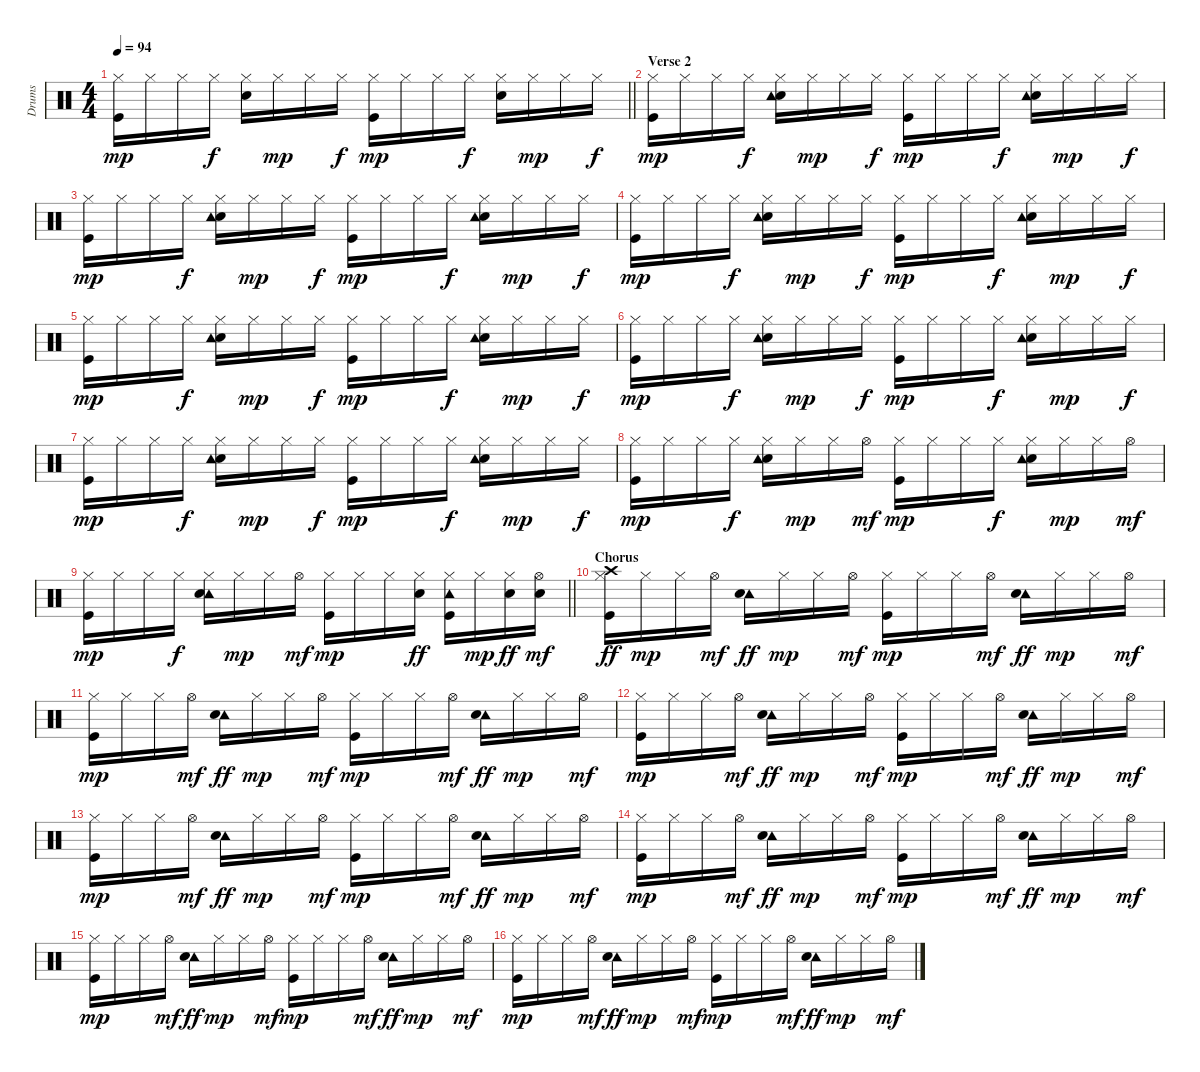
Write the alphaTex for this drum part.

\track ("Drums" "Drums") {instrument percussion}
\staff {score}
\articulation defaults
\ts (4 4)
\tempo 94
\clef neutral
\barLineRight lightlight
\ks c
("Hi-Hat (closed)" "Kick (hit)").16{dy mp} "Hi-Hat (closed)".16 "Hi-Hat (closed)".16 "Hi-Hat (closed)".16{dy f} ("Snare (hit) 2" "Hi-Hat (closed)").16 "Hi-Hat (closed)".16{dy mp} "Hi-Hat (closed)".16 "Hi-Hat (closed)".16{dy f} ("Hi-Hat (closed)" "Kick (hit)").16{dy mp} "Hi-Hat (closed)".16 "Hi-Hat (closed)".16 "Hi-Hat (closed)".16{dy f} ("Snare (hit) 2" "Hi-Hat (closed)").16 "Hi-Hat (closed)".16{dy mp} "Hi-Hat (closed)".16 "Hi-Hat (closed)".16{dy f} |
\section ("" "Verse 2")
("Hi-Hat (closed)" "Kick (hit)").16{dy mp} "Hi-Hat (closed)".16 "Hi-Hat (closed)".16 "Hi-Hat (closed)".16{dy f} ("Snare (hit) 2" "Tambourine (hit)" "Hi-Hat (closed)").16 "Hi-Hat (closed)".16{dy mp} "Hi-Hat (closed)".16 "Hi-Hat (closed)".16{dy f} ("Hi-Hat (closed)" "Kick (hit)").16{dy mp} "Hi-Hat (closed)".16 "Hi-Hat (closed)".16 "Hi-Hat (closed)".16{dy f} ("Snare (hit) 2" "Tambourine (hit)" "Hi-Hat (closed)").16 "Hi-Hat (closed)".16{dy mp} "Hi-Hat (closed)".16 "Hi-Hat (closed)".16{dy f} |
("Hi-Hat (closed)" "Kick (hit)").16{dy mp} "Hi-Hat (closed)".16 "Hi-Hat (closed)".16 "Hi-Hat (closed)".16{dy f} ("Snare (hit) 2" "Tambourine (hit)" "Hi-Hat (closed)").16 "Hi-Hat (closed)".16{dy mp} "Hi-Hat (closed)".16 "Hi-Hat (closed)".16{dy f} ("Hi-Hat (closed)" "Kick (hit)").16{dy mp} "Hi-Hat (closed)".16 "Hi-Hat (closed)".16 "Hi-Hat (closed)".16{dy f} ("Snare (hit) 2" "Tambourine (hit)" "Hi-Hat (closed)").16 "Hi-Hat (closed)".16{dy mp} "Hi-Hat (closed)".16 "Hi-Hat (closed)".16{dy f} |
("Hi-Hat (closed)" "Kick (hit)").16{dy mp} "Hi-Hat (closed)".16 "Hi-Hat (closed)".16 "Hi-Hat (closed)".16{dy f} ("Snare (hit) 2" "Tambourine (hit)" "Hi-Hat (closed)").16 "Hi-Hat (closed)".16{dy mp} "Hi-Hat (closed)".16 "Hi-Hat (closed)".16{dy f} ("Hi-Hat (closed)" "Kick (hit)").16{dy mp} "Hi-Hat (closed)".16 "Hi-Hat (closed)".16 "Hi-Hat (closed)".16{dy f} ("Snare (hit) 2" "Tambourine (hit)" "Hi-Hat (closed)").16 "Hi-Hat (closed)".16{dy mp} "Hi-Hat (closed)".16 "Hi-Hat (closed)".16{dy f} |
("Hi-Hat (closed)" "Kick (hit)").16{dy mp} "Hi-Hat (closed)".16 "Hi-Hat (closed)".16 "Hi-Hat (closed)".16{dy f} ("Snare (hit) 2" "Tambourine (hit)" "Hi-Hat (closed)").16 "Hi-Hat (closed)".16{dy mp} "Hi-Hat (closed)".16 "Hi-Hat (closed)".16{dy f} ("Hi-Hat (closed)" "Kick (hit)").16{dy mp} "Hi-Hat (closed)".16 "Hi-Hat (closed)".16 "Hi-Hat (closed)".16{dy f} ("Snare (hit) 2" "Tambourine (hit)" "Hi-Hat (closed)").16 "Hi-Hat (closed)".16{dy mp} "Hi-Hat (closed)".16 "Hi-Hat (closed)".16{dy f} |
("Hi-Hat (closed)" "Kick (hit)").16{dy mp} "Hi-Hat (closed)".16 "Hi-Hat (closed)".16 "Hi-Hat (closed)".16{dy f} ("Snare (hit) 2" "Tambourine (hit)" "Hi-Hat (closed)").16 "Hi-Hat (closed)".16{dy mp} "Hi-Hat (closed)".16 "Hi-Hat (closed)".16{dy f} ("Hi-Hat (closed)" "Kick (hit)").16{dy mp} "Hi-Hat (closed)".16 "Hi-Hat (closed)".16 "Hi-Hat (closed)".16{dy f} ("Snare (hit) 2" "Tambourine (hit)" "Hi-Hat (closed)").16 "Hi-Hat (closed)".16{dy mp} "Hi-Hat (closed)".16 "Hi-Hat (closed)".16{dy f} |
("Hi-Hat (closed)" "Kick (hit)").16{dy mp} "Hi-Hat (closed)".16 "Hi-Hat (closed)".16 "Hi-Hat (closed)".16{dy f} ("Snare (hit) 2" "Tambourine (hit)" "Hi-Hat (closed)").16 "Hi-Hat (closed)".16{dy mp} "Hi-Hat (closed)".16 "Hi-Hat (closed)".16{dy f} ("Hi-Hat (closed)" "Kick (hit)").16{dy mp} "Hi-Hat (closed)".16 "Hi-Hat (closed)".16 "Hi-Hat (closed)".16{dy f} ("Snare (hit) 2" "Tambourine (hit)" "Hi-Hat (closed)").16 "Hi-Hat (closed)".16{dy mp} "Hi-Hat (closed)".16 "Hi-Hat (closed)".16{dy f} |
("Hi-Hat (closed)" "Kick (hit)").16{dy mp} "Hi-Hat (closed)".16 "Hi-Hat (closed)".16 "Hi-Hat (closed)".16{dy f} ("Snare (hit) 2" "Tambourine (hit)" "Hi-Hat (closed)").16 "Hi-Hat (closed)".16{dy mp} "Hi-Hat (closed)".16 "Hi-Hat (open)".16{dy mf} ("Hi-Hat (closed)" "Kick (hit)").16{dy mp} "Hi-Hat (closed)".16 "Hi-Hat (closed)".16 "Hi-Hat (closed)".16{dy f} ("Snare (hit) 2" "Tambourine (hit)" "Hi-Hat (closed)").16 "Hi-Hat (closed)".16{dy mp} "Hi-Hat (closed)".16 "Hi-Hat (open)".16{dy mf} |
\barLineRight lightlight
("Hi-Hat (closed)" "Kick (hit)").16{dy mp} "Hi-Hat (closed)".16 "Hi-Hat (closed)".16 "Hi-Hat (closed)".16{dy f} ("Tambourine (hit)" "Hi-Hat (closed)" "Snare (hit) 2").16 "Hi-Hat (closed)".16{dy mp} "Hi-Hat (closed)".16 "Hi-Hat (open)".16{dy mf} ("Hi-Hat (closed)" "Kick (hit)").16{dy mp} "Hi-Hat (closed)".16 "Hi-Hat (closed)".16 ("Hi-Hat (closed)" "Snare (hit) 2").16{dy ff} ("Tambourine (hit)" "Hi-Hat (closed)" "Kick (hit)").16 "Hi-Hat (closed)".16{dy mp} ("Hi-Hat (closed)" "Snare (hit) 2").16{dy ff} ("Snare (hit) 2" "Hi-Hat (open)").16{dy mf} |
\section ("" "Chorus")
("Hi-Hat (closed)" "Kick (hit)" "Crash high (hit)").16{dy ff} "Hi-Hat (closed)".16{dy mp} "Hi-Hat (closed)".16 "Hi-Hat (open)".16{dy mf} ("Tambourine (hit)" "Snare (hit) 2").16{dy ff} "Hi-Hat (closed)".16{dy mp} "Hi-Hat (closed)".16 "Hi-Hat (open)".16{dy mf} ("Hi-Hat (closed)" "Kick (hit)").16{dy mp} "Hi-Hat (closed)".16 "Hi-Hat (closed)".16 "Hi-Hat (open)".16{dy mf} ("Tambourine (hit)" "Snare (hit) 2").16{dy ff} "Hi-Hat (closed)".16{dy mp} "Hi-Hat (closed)".16 "Hi-Hat (open)".16{dy mf} |
("Hi-Hat (closed)" "Kick (hit)").16{dy mp} "Hi-Hat (closed)".16 "Hi-Hat (closed)".16 "Hi-Hat (open)".16{dy mf} ("Tambourine (hit)" "Snare (hit) 2").16{dy ff} "Hi-Hat (closed)".16{dy mp} "Hi-Hat (closed)".16 "Hi-Hat (open)".16{dy mf} ("Hi-Hat (closed)" "Kick (hit)").16{dy mp} "Hi-Hat (closed)".16 "Hi-Hat (closed)".16 "Hi-Hat (open)".16{dy mf} ("Tambourine (hit)" "Snare (hit) 2").16{dy ff} "Hi-Hat (closed)".16{dy mp} "Hi-Hat (closed)".16 "Hi-Hat (open)".16{dy mf} |
("Hi-Hat (closed)" "Kick (hit)").16{dy mp} "Hi-Hat (closed)".16 "Hi-Hat (closed)".16 "Hi-Hat (open)".16{dy mf} ("Tambourine (hit)" "Snare (hit) 2").16{dy ff} "Hi-Hat (closed)".16{dy mp} "Hi-Hat (closed)".16 "Hi-Hat (open)".16{dy mf} ("Hi-Hat (closed)" "Kick (hit)").16{dy mp} "Hi-Hat (closed)".16 "Hi-Hat (closed)".16 "Hi-Hat (open)".16{dy mf} ("Tambourine (hit)" "Snare (hit) 2").16{dy ff} "Hi-Hat (closed)".16{dy mp} "Hi-Hat (closed)".16 "Hi-Hat (open)".16{dy mf} |
("Hi-Hat (closed)" "Kick (hit)").16{dy mp} "Hi-Hat (closed)".16 "Hi-Hat (closed)".16 "Hi-Hat (open)".16{dy mf} ("Tambourine (hit)" "Snare (hit) 2").16{dy ff} "Hi-Hat (closed)".16{dy mp} "Hi-Hat (closed)".16 "Hi-Hat (open)".16{dy mf} ("Hi-Hat (closed)" "Kick (hit)").16{dy mp} "Hi-Hat (closed)".16 "Hi-Hat (closed)".16 "Hi-Hat (open)".16{dy mf} ("Tambourine (hit)" "Snare (hit) 2").16{dy ff} "Hi-Hat (closed)".16{dy mp} "Hi-Hat (closed)".16 "Hi-Hat (open)".16{dy mf} |
("Hi-Hat (closed)" "Kick (hit)").16{dy mp} "Hi-Hat (closed)".16 "Hi-Hat (closed)".16 "Hi-Hat (open)".16{dy mf} ("Tambourine (hit)" "Snare (hit) 2").16{dy ff} "Hi-Hat (closed)".16{dy mp} "Hi-Hat (closed)".16 "Hi-Hat (open)".16{dy mf} ("Hi-Hat (closed)" "Kick (hit)").16{dy mp} "Hi-Hat (closed)".16 "Hi-Hat (closed)".16 "Hi-Hat (open)".16{dy mf} ("Tambourine (hit)" "Snare (hit) 2").16{dy ff} "Hi-Hat (closed)".16{dy mp} "Hi-Hat (closed)".16 "Hi-Hat (open)".16{dy mf} |
("Hi-Hat (closed)" "Kick (hit)").16{dy mp} "Hi-Hat (closed)".16 "Hi-Hat (closed)".16 "Hi-Hat (open)".16{dy mf} ("Tambourine (hit)" "Snare (hit) 2").16{dy ff} "Hi-Hat (closed)".16{dy mp} "Hi-Hat (closed)".16 "Hi-Hat (open)".16{dy mf} ("Hi-Hat (closed)" "Kick (hit)").16{dy mp} "Hi-Hat (closed)".16 "Hi-Hat (closed)".16 "Hi-Hat (open)".16{dy mf} ("Tambourine (hit)" "Snare (hit) 2").16{dy ff} "Hi-Hat (closed)".16{dy mp} "Hi-Hat (closed)".16 "Hi-Hat (open)".16{dy mf} |
("Hi-Hat (closed)" "Kick (hit)").16{dy mp} "Hi-Hat (closed)".16 "Hi-Hat (closed)".16 "Hi-Hat (open)".16{dy mf} ("Tambourine (hit)" "Snare (hit) 2").16{dy ff} "Hi-Hat (closed)".16{dy mp} "Hi-Hat (closed)".16 "Hi-Hat (open)".16{dy mf} ("Hi-Hat (closed)" "Kick (hit)").16{dy mp} "Hi-Hat (closed)".16 "Hi-Hat (closed)".16 "Hi-Hat (open)".16{dy mf} ("Tambourine (hit)" "Snare (hit) 2").16{dy ff} "Hi-Hat (closed)".16{dy mp} "Hi-Hat (closed)".16 "Hi-Hat (open)".16{dy mf}
